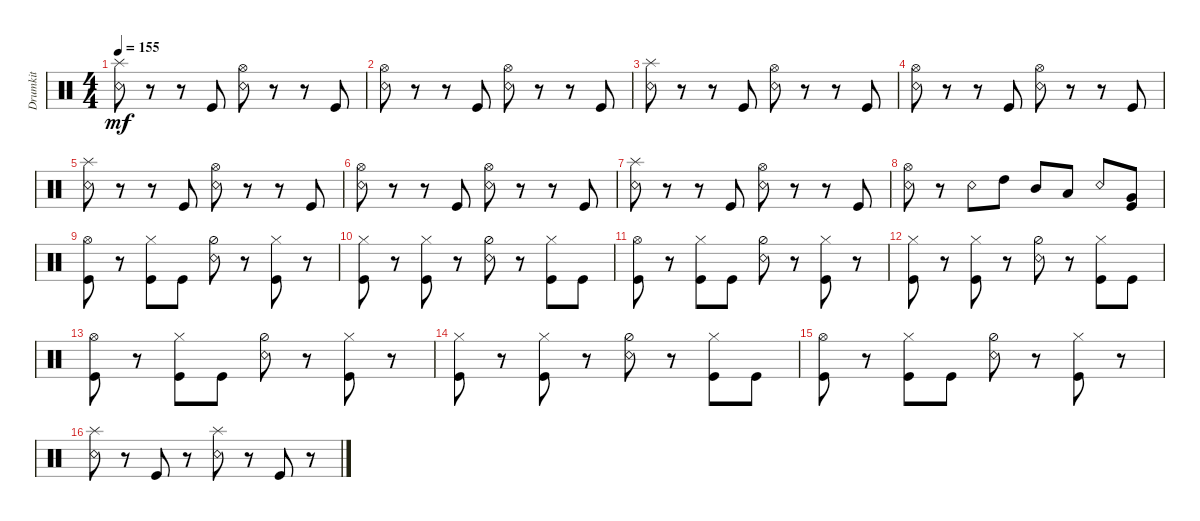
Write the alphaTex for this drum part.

\track ("Drumkit" "Drumkit") {instrument percussion}
\staff {score}
\articulation defaults
\ts (4 4)
\tempo 155
\clef neutral
\ks c
("Snare (rim shot)" "Splash (hit)").8{dy mf} r.8 r.8 "Kick (hit)".8 ("Snare (rim shot)" "Hi-Hat (open)").8 r.8 r.8 "Kick (hit)".8 |
("Snare (rim shot)" "Hi-Hat (open)").8 r.8 r.8 "Kick (hit)".8 ("Snare (rim shot)" "Hi-Hat (open)").8 r.8 r.8 "Kick (hit)".8 |
("Snare (rim shot)" "Splash (hit)").8 r.8 r.8 "Kick (hit)".8 ("Snare (rim shot)" "Hi-Hat (open)").8 r.8 r.8 "Kick (hit)".8 |
("Snare (rim shot)" "Hi-Hat (open)").8 r.8 r.8 "Kick (hit)".8 ("Snare (rim shot)" "Hi-Hat (open)").8 r.8 r.8 "Kick (hit)".8 |
("Snare (rim shot)" "Splash (hit)").8 r.8 r.8 "Kick (hit)".8 ("Snare (rim shot)" "Hi-Hat (open)").8 r.8 r.8 "Kick (hit)".8 |
("Snare (rim shot)" "Hi-Hat (open)").8 r.8 r.8 "Kick (hit)".8 ("Snare (rim shot)" "Hi-Hat (open)").8 r.8 r.8 "Kick (hit)".8 |
("Snare (rim shot)" "Splash (hit)").8 r.8 r.8 "Kick (hit)".8 ("Snare (rim shot)" "Hi-Hat (open)").8 r.8 r.8 "Kick (hit)".8 |
("Snare (rim shot)" "Hi-Hat (open)").8 r.8 "Snare (rim shot)".8 "High Tom (hit)".8 "Mid Tom (hit)".8 "Low Tom (hit)".8 "Snare (rim shot)".8 ("Very Low Tom (hit)" "Kick (hit)").8 |
("Kick (hit)" "Hi-Hat (open)").8 r.8 ("Kick (hit)" "Hi-Hat (closed)").8 "Kick (hit)".8 ("Snare (rim shot)" "Hi-Hat (half)").8 r.8 ("Kick (hit)" "Hi-Hat (closed)").8 r.8 |
("Kick (hit)" "Hi-Hat (closed)").8 r.8 ("Kick (hit)" "Hi-Hat (closed)").8 r.8 ("Snare (rim shot)" "Hi-Hat (half)").8 r.8 ("Kick (hit)" "Hi-Hat (closed)").8 "Kick (hit)".8 |
("Kick (hit)" "Hi-Hat (open)").8 r.8 ("Kick (hit)" "Hi-Hat (closed)").8 "Kick (hit)".8 ("Snare (rim shot)" "Hi-Hat (half)").8 r.8 ("Kick (hit)" "Hi-Hat (closed)").8 r.8 |
("Kick (hit)" "Hi-Hat (closed)").8 r.8 ("Kick (hit)" "Hi-Hat (closed)").8 r.8 ("Snare (rim shot)" "Hi-Hat (half)").8 r.8 ("Kick (hit)" "Hi-Hat (closed)").8 "Kick (hit)".8 |
("Kick (hit)" "Hi-Hat (open)").8 r.8 ("Kick (hit)" "Hi-Hat (closed)").8 "Kick (hit)".8 ("Snare (rim shot)" "Hi-Hat (half)").8 r.8 ("Kick (hit)" "Hi-Hat (closed)").8 r.8 |
("Kick (hit)" "Hi-Hat (closed)").8 r.8 ("Kick (hit)" "Hi-Hat (closed)").8 r.8 ("Snare (rim shot)" "Hi-Hat (half)").8 r.8 ("Kick (hit)" "Hi-Hat (closed)").8 "Kick (hit)".8 |
("Kick (hit)" "Hi-Hat (open)").8 r.8 ("Kick (hit)" "Hi-Hat (closed)").8 "Kick (hit)".8 ("Snare (rim shot)" "Hi-Hat (half)").8 r.8 ("Kick (hit)" "Hi-Hat (closed)").8 r.8 |
("Snare (rim shot)" "Splash (hit)").8 r.8 "Kick (hit)".8 r.8 ("Snare (rim shot)" "Splash (hit)").8 r.8 "Kick (hit)".8 r.8
